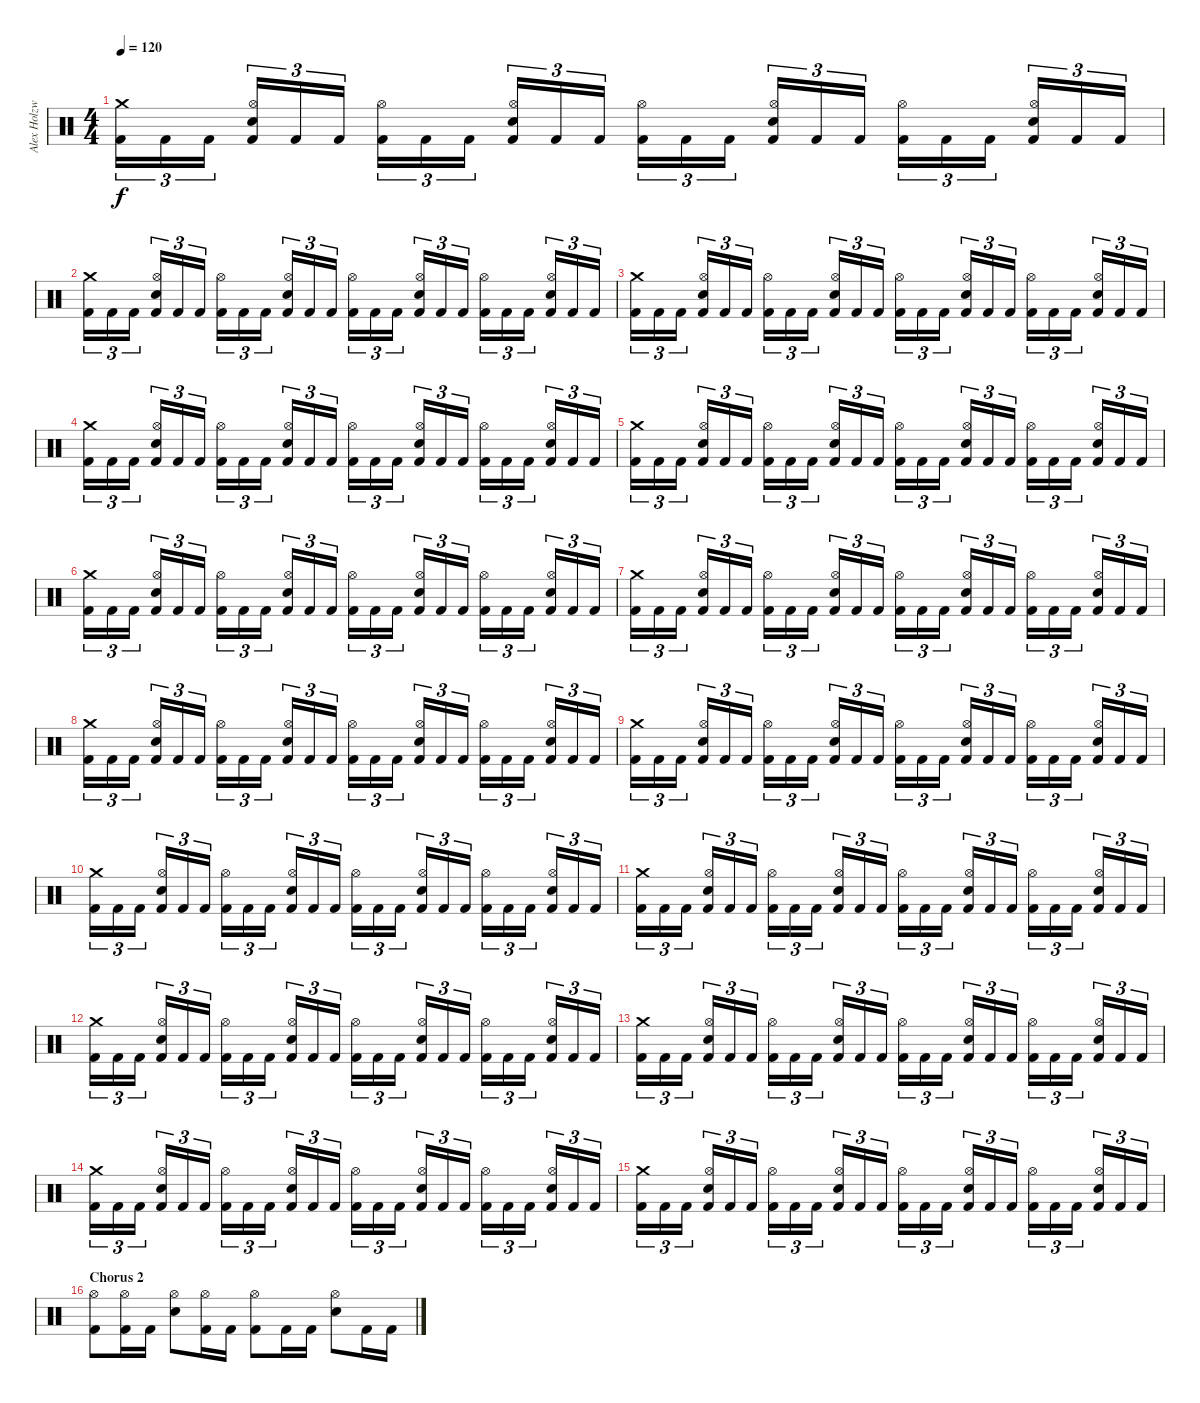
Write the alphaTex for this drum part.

\track ("Alex Holzwarth - Drums" "Alex Holzw") {instrument percussion}
\staff {score}
\articulation defaults
\ts (4 4)
\tempo 120
\clef neutral
\ks c
("Crash medium (hit)" "Kick (hit) 2").16{tu (3 2) dy f} "Kick (hit) 2".16{tu (3 2)} "Kick (hit) 2".16{tu (3 2)} ("Hi-Hat (open)" "Electric Snare (hit)" "Kick (hit) 2").16{tu (3 2)} "Kick (hit) 2".16{tu (3 2)} "Kick (hit) 2".16{tu (3 2)} ("Hi-Hat (open)" "Kick (hit) 2").16{tu (3 2)} "Kick (hit) 2".16{tu (3 2)} "Kick (hit) 2".16{tu (3 2)} ("Hi-Hat (open)" "Electric Snare (hit)" "Kick (hit) 2").16{tu (3 2)} "Kick (hit) 2".16{tu (3 2)} "Kick (hit) 2".16{tu (3 2)} ("Hi-Hat (open)" "Kick (hit) 2").16{tu (3 2)} "Kick (hit) 2".16{tu (3 2)} "Kick (hit) 2".16{tu (3 2)} ("Hi-Hat (open)" "Electric Snare (hit)" "Kick (hit) 2").16{tu (3 2)} "Kick (hit) 2".16{tu (3 2)} "Kick (hit) 2".16{tu (3 2)} ("Hi-Hat (open)" "Kick (hit) 2").16{tu (3 2)} "Kick (hit) 2".16{tu (3 2)} "Kick (hit) 2".16{tu (3 2)} ("Hi-Hat (open)" "Electric Snare (hit)" "Kick (hit) 2").16{tu (3 2)} "Kick (hit) 2".16{tu (3 2)} "Kick (hit) 2".16{tu (3 2)} |
("Crash medium (hit)" "Kick (hit) 2").16{tu (3 2)} "Kick (hit) 2".16{tu (3 2)} "Kick (hit) 2".16{tu (3 2)} ("Hi-Hat (open)" "Electric Snare (hit)" "Kick (hit) 2").16{tu (3 2)} "Kick (hit) 2".16{tu (3 2)} "Kick (hit) 2".16{tu (3 2)} ("Hi-Hat (open)" "Kick (hit) 2").16{tu (3 2)} "Kick (hit) 2".16{tu (3 2)} "Kick (hit) 2".16{tu (3 2)} ("Hi-Hat (open)" "Electric Snare (hit)" "Kick (hit) 2").16{tu (3 2)} "Kick (hit) 2".16{tu (3 2)} "Kick (hit) 2".16{tu (3 2)} ("Hi-Hat (open)" "Kick (hit) 2").16{tu (3 2)} "Kick (hit) 2".16{tu (3 2)} "Kick (hit) 2".16{tu (3 2)} ("Hi-Hat (open)" "Electric Snare (hit)" "Kick (hit) 2").16{tu (3 2)} "Kick (hit) 2".16{tu (3 2)} "Kick (hit) 2".16{tu (3 2)} ("Hi-Hat (open)" "Kick (hit) 2").16{tu (3 2)} "Kick (hit) 2".16{tu (3 2)} "Kick (hit) 2".16{tu (3 2)} ("Hi-Hat (open)" "Electric Snare (hit)" "Kick (hit) 2").16{tu (3 2)} "Kick (hit) 2".16{tu (3 2)} "Kick (hit) 2".16{tu (3 2)} |
("Crash medium (hit)" "Kick (hit) 2").16{tu (3 2)} "Kick (hit) 2".16{tu (3 2)} "Kick (hit) 2".16{tu (3 2)} ("Hi-Hat (open)" "Electric Snare (hit)" "Kick (hit) 2").16{tu (3 2)} "Kick (hit) 2".16{tu (3 2)} "Kick (hit) 2".16{tu (3 2)} ("Hi-Hat (open)" "Kick (hit) 2").16{tu (3 2)} "Kick (hit) 2".16{tu (3 2)} "Kick (hit) 2".16{tu (3 2)} ("Hi-Hat (open)" "Electric Snare (hit)" "Kick (hit) 2").16{tu (3 2)} "Kick (hit) 2".16{tu (3 2)} "Kick (hit) 2".16{tu (3 2)} ("Hi-Hat (open)" "Kick (hit) 2").16{tu (3 2)} "Kick (hit) 2".16{tu (3 2)} "Kick (hit) 2".16{tu (3 2)} ("Hi-Hat (open)" "Electric Snare (hit)" "Kick (hit) 2").16{tu (3 2)} "Kick (hit) 2".16{tu (3 2)} "Kick (hit) 2".16{tu (3 2)} ("Hi-Hat (open)" "Kick (hit) 2").16{tu (3 2)} "Kick (hit) 2".16{tu (3 2)} "Kick (hit) 2".16{tu (3 2)} ("Hi-Hat (open)" "Electric Snare (hit)" "Kick (hit) 2").16{tu (3 2)} "Kick (hit) 2".16{tu (3 2)} "Kick (hit) 2".16{tu (3 2)} |
("Crash medium (hit)" "Kick (hit) 2").16{tu (3 2)} "Kick (hit) 2".16{tu (3 2)} "Kick (hit) 2".16{tu (3 2)} ("Hi-Hat (open)" "Electric Snare (hit)" "Kick (hit) 2").16{tu (3 2)} "Kick (hit) 2".16{tu (3 2)} "Kick (hit) 2".16{tu (3 2)} ("Hi-Hat (open)" "Kick (hit) 2").16{tu (3 2)} "Kick (hit) 2".16{tu (3 2)} "Kick (hit) 2".16{tu (3 2)} ("Hi-Hat (open)" "Electric Snare (hit)" "Kick (hit) 2").16{tu (3 2)} "Kick (hit) 2".16{tu (3 2)} "Kick (hit) 2".16{tu (3 2)} ("Hi-Hat (open)" "Kick (hit) 2").16{tu (3 2)} "Kick (hit) 2".16{tu (3 2)} "Kick (hit) 2".16{tu (3 2)} ("Hi-Hat (open)" "Electric Snare (hit)" "Kick (hit) 2").16{tu (3 2)} "Kick (hit) 2".16{tu (3 2)} "Kick (hit) 2".16{tu (3 2)} ("Hi-Hat (open)" "Kick (hit) 2").16{tu (3 2)} "Kick (hit) 2".16{tu (3 2)} "Kick (hit) 2".16{tu (3 2)} ("Hi-Hat (open)" "Electric Snare (hit)" "Kick (hit) 2").16{tu (3 2)} "Kick (hit) 2".16{tu (3 2)} "Kick (hit) 2".16{tu (3 2)} |
("Crash medium (hit)" "Kick (hit) 2").16{tu (3 2)} "Kick (hit) 2".16{tu (3 2)} "Kick (hit) 2".16{tu (3 2)} ("Hi-Hat (open)" "Electric Snare (hit)" "Kick (hit) 2").16{tu (3 2)} "Kick (hit) 2".16{tu (3 2)} "Kick (hit) 2".16{tu (3 2)} ("Hi-Hat (open)" "Kick (hit) 2").16{tu (3 2)} "Kick (hit) 2".16{tu (3 2)} "Kick (hit) 2".16{tu (3 2)} ("Hi-Hat (open)" "Electric Snare (hit)" "Kick (hit) 2").16{tu (3 2)} "Kick (hit) 2".16{tu (3 2)} "Kick (hit) 2".16{tu (3 2)} ("Hi-Hat (open)" "Kick (hit) 2").16{tu (3 2)} "Kick (hit) 2".16{tu (3 2)} "Kick (hit) 2".16{tu (3 2)} ("Hi-Hat (open)" "Electric Snare (hit)" "Kick (hit) 2").16{tu (3 2)} "Kick (hit) 2".16{tu (3 2)} "Kick (hit) 2".16{tu (3 2)} ("Hi-Hat (open)" "Kick (hit) 2").16{tu (3 2)} "Kick (hit) 2".16{tu (3 2)} "Kick (hit) 2".16{tu (3 2)} ("Hi-Hat (open)" "Electric Snare (hit)" "Kick (hit) 2").16{tu (3 2)} "Kick (hit) 2".16{tu (3 2)} "Kick (hit) 2".16{tu (3 2)} |
("Crash medium (hit)" "Kick (hit) 2").16{tu (3 2)} "Kick (hit) 2".16{tu (3 2)} "Kick (hit) 2".16{tu (3 2)} ("Hi-Hat (open)" "Electric Snare (hit)" "Kick (hit) 2").16{tu (3 2)} "Kick (hit) 2".16{tu (3 2)} "Kick (hit) 2".16{tu (3 2)} ("Hi-Hat (open)" "Kick (hit) 2").16{tu (3 2)} "Kick (hit) 2".16{tu (3 2)} "Kick (hit) 2".16{tu (3 2)} ("Hi-Hat (open)" "Electric Snare (hit)" "Kick (hit) 2").16{tu (3 2)} "Kick (hit) 2".16{tu (3 2)} "Kick (hit) 2".16{tu (3 2)} ("Hi-Hat (open)" "Kick (hit) 2").16{tu (3 2)} "Kick (hit) 2".16{tu (3 2)} "Kick (hit) 2".16{tu (3 2)} ("Hi-Hat (open)" "Electric Snare (hit)" "Kick (hit) 2").16{tu (3 2)} "Kick (hit) 2".16{tu (3 2)} "Kick (hit) 2".16{tu (3 2)} ("Hi-Hat (open)" "Kick (hit) 2").16{tu (3 2)} "Kick (hit) 2".16{tu (3 2)} "Kick (hit) 2".16{tu (3 2)} ("Hi-Hat (open)" "Electric Snare (hit)" "Kick (hit) 2").16{tu (3 2)} "Kick (hit) 2".16{tu (3 2)} "Kick (hit) 2".16{tu (3 2)} |
("Crash medium (hit)" "Kick (hit) 2").16{tu (3 2)} "Kick (hit) 2".16{tu (3 2)} "Kick (hit) 2".16{tu (3 2)} ("Hi-Hat (open)" "Electric Snare (hit)" "Kick (hit) 2").16{tu (3 2)} "Kick (hit) 2".16{tu (3 2)} "Kick (hit) 2".16{tu (3 2)} ("Hi-Hat (open)" "Kick (hit) 2").16{tu (3 2)} "Kick (hit) 2".16{tu (3 2)} "Kick (hit) 2".16{tu (3 2)} ("Hi-Hat (open)" "Electric Snare (hit)" "Kick (hit) 2").16{tu (3 2)} "Kick (hit) 2".16{tu (3 2)} "Kick (hit) 2".16{tu (3 2)} ("Hi-Hat (open)" "Kick (hit) 2").16{tu (3 2)} "Kick (hit) 2".16{tu (3 2)} "Kick (hit) 2".16{tu (3 2)} ("Hi-Hat (open)" "Electric Snare (hit)" "Kick (hit) 2").16{tu (3 2)} "Kick (hit) 2".16{tu (3 2)} "Kick (hit) 2".16{tu (3 2)} ("Hi-Hat (open)" "Kick (hit) 2").16{tu (3 2)} "Kick (hit) 2".16{tu (3 2)} "Kick (hit) 2".16{tu (3 2)} ("Hi-Hat (open)" "Electric Snare (hit)" "Kick (hit) 2").16{tu (3 2)} "Kick (hit) 2".16{tu (3 2)} "Kick (hit) 2".16{tu (3 2)} |
("Crash medium (hit)" "Kick (hit) 2").16{tu (3 2)} "Kick (hit) 2".16{tu (3 2)} "Kick (hit) 2".16{tu (3 2)} ("Hi-Hat (open)" "Electric Snare (hit)" "Kick (hit) 2").16{tu (3 2)} "Kick (hit) 2".16{tu (3 2)} "Kick (hit) 2".16{tu (3 2)} ("Hi-Hat (open)" "Kick (hit) 2").16{tu (3 2)} "Kick (hit) 2".16{tu (3 2)} "Kick (hit) 2".16{tu (3 2)} ("Hi-Hat (open)" "Electric Snare (hit)" "Kick (hit) 2").16{tu (3 2)} "Kick (hit) 2".16{tu (3 2)} "Kick (hit) 2".16{tu (3 2)} ("Hi-Hat (open)" "Kick (hit) 2").16{tu (3 2)} "Kick (hit) 2".16{tu (3 2)} "Kick (hit) 2".16{tu (3 2)} ("Hi-Hat (open)" "Electric Snare (hit)" "Kick (hit) 2").16{tu (3 2)} "Kick (hit) 2".16{tu (3 2)} "Kick (hit) 2".16{tu (3 2)} ("Hi-Hat (open)" "Kick (hit) 2").16{tu (3 2)} "Kick (hit) 2".16{tu (3 2)} "Kick (hit) 2".16{tu (3 2)} ("Hi-Hat (open)" "Electric Snare (hit)" "Kick (hit) 2").16{tu (3 2)} "Kick (hit) 2".16{tu (3 2)} "Kick (hit) 2".16{tu (3 2)} |
("Crash medium (hit)" "Kick (hit) 2").16{tu (3 2)} "Kick (hit) 2".16{tu (3 2)} "Kick (hit) 2".16{tu (3 2)} ("Hi-Hat (open)" "Electric Snare (hit)" "Kick (hit) 2").16{tu (3 2)} "Kick (hit) 2".16{tu (3 2)} "Kick (hit) 2".16{tu (3 2)} ("Hi-Hat (open)" "Kick (hit) 2").16{tu (3 2)} "Kick (hit) 2".16{tu (3 2)} "Kick (hit) 2".16{tu (3 2)} ("Hi-Hat (open)" "Electric Snare (hit)" "Kick (hit) 2").16{tu (3 2)} "Kick (hit) 2".16{tu (3 2)} "Kick (hit) 2".16{tu (3 2)} ("Hi-Hat (open)" "Kick (hit) 2").16{tu (3 2)} "Kick (hit) 2".16{tu (3 2)} "Kick (hit) 2".16{tu (3 2)} ("Hi-Hat (open)" "Electric Snare (hit)" "Kick (hit) 2").16{tu (3 2)} "Kick (hit) 2".16{tu (3 2)} "Kick (hit) 2".16{tu (3 2)} ("Hi-Hat (open)" "Kick (hit) 2").16{tu (3 2)} "Kick (hit) 2".16{tu (3 2)} "Kick (hit) 2".16{tu (3 2)} ("Hi-Hat (open)" "Electric Snare (hit)" "Kick (hit) 2").16{tu (3 2)} "Kick (hit) 2".16{tu (3 2)} "Kick (hit) 2".16{tu (3 2)} |
("Crash medium (hit)" "Kick (hit) 2").16{tu (3 2)} "Kick (hit) 2".16{tu (3 2)} "Kick (hit) 2".16{tu (3 2)} ("Hi-Hat (open)" "Electric Snare (hit)" "Kick (hit) 2").16{tu (3 2)} "Kick (hit) 2".16{tu (3 2)} "Kick (hit) 2".16{tu (3 2)} ("Hi-Hat (open)" "Kick (hit) 2").16{tu (3 2)} "Kick (hit) 2".16{tu (3 2)} "Kick (hit) 2".16{tu (3 2)} ("Hi-Hat (open)" "Electric Snare (hit)" "Kick (hit) 2").16{tu (3 2)} "Kick (hit) 2".16{tu (3 2)} "Kick (hit) 2".16{tu (3 2)} ("Hi-Hat (open)" "Kick (hit) 2").16{tu (3 2)} "Kick (hit) 2".16{tu (3 2)} "Kick (hit) 2".16{tu (3 2)} ("Hi-Hat (open)" "Electric Snare (hit)" "Kick (hit) 2").16{tu (3 2)} "Kick (hit) 2".16{tu (3 2)} "Kick (hit) 2".16{tu (3 2)} ("Hi-Hat (open)" "Kick (hit) 2").16{tu (3 2)} "Kick (hit) 2".16{tu (3 2)} "Kick (hit) 2".16{tu (3 2)} ("Hi-Hat (open)" "Electric Snare (hit)" "Kick (hit) 2").16{tu (3 2)} "Kick (hit) 2".16{tu (3 2)} "Kick (hit) 2".16{tu (3 2)} |
("Crash medium (hit)" "Kick (hit) 2").16{tu (3 2)} "Kick (hit) 2".16{tu (3 2)} "Kick (hit) 2".16{tu (3 2)} ("Hi-Hat (open)" "Electric Snare (hit)" "Kick (hit) 2").16{tu (3 2)} "Kick (hit) 2".16{tu (3 2)} "Kick (hit) 2".16{tu (3 2)} ("Hi-Hat (open)" "Kick (hit) 2").16{tu (3 2)} "Kick (hit) 2".16{tu (3 2)} "Kick (hit) 2".16{tu (3 2)} ("Hi-Hat (open)" "Electric Snare (hit)" "Kick (hit) 2").16{tu (3 2)} "Kick (hit) 2".16{tu (3 2)} "Kick (hit) 2".16{tu (3 2)} ("Hi-Hat (open)" "Kick (hit) 2").16{tu (3 2)} "Kick (hit) 2".16{tu (3 2)} "Kick (hit) 2".16{tu (3 2)} ("Hi-Hat (open)" "Electric Snare (hit)" "Kick (hit) 2").16{tu (3 2)} "Kick (hit) 2".16{tu (3 2)} "Kick (hit) 2".16{tu (3 2)} ("Hi-Hat (open)" "Kick (hit) 2").16{tu (3 2)} "Kick (hit) 2".16{tu (3 2)} "Kick (hit) 2".16{tu (3 2)} ("Hi-Hat (open)" "Electric Snare (hit)" "Kick (hit) 2").16{tu (3 2)} "Kick (hit) 2".16{tu (3 2)} "Kick (hit) 2".16{tu (3 2)} |
("Crash medium (hit)" "Kick (hit) 2").16{tu (3 2)} "Kick (hit) 2".16{tu (3 2)} "Kick (hit) 2".16{tu (3 2)} ("Hi-Hat (open)" "Electric Snare (hit)" "Kick (hit) 2").16{tu (3 2)} "Kick (hit) 2".16{tu (3 2)} "Kick (hit) 2".16{tu (3 2)} ("Hi-Hat (open)" "Kick (hit) 2").16{tu (3 2)} "Kick (hit) 2".16{tu (3 2)} "Kick (hit) 2".16{tu (3 2)} ("Hi-Hat (open)" "Electric Snare (hit)" "Kick (hit) 2").16{tu (3 2)} "Kick (hit) 2".16{tu (3 2)} "Kick (hit) 2".16{tu (3 2)} ("Hi-Hat (open)" "Kick (hit) 2").16{tu (3 2)} "Kick (hit) 2".16{tu (3 2)} "Kick (hit) 2".16{tu (3 2)} ("Hi-Hat (open)" "Electric Snare (hit)" "Kick (hit) 2").16{tu (3 2)} "Kick (hit) 2".16{tu (3 2)} "Kick (hit) 2".16{tu (3 2)} ("Hi-Hat (open)" "Kick (hit) 2").16{tu (3 2)} "Kick (hit) 2".16{tu (3 2)} "Kick (hit) 2".16{tu (3 2)} ("Hi-Hat (open)" "Electric Snare (hit)" "Kick (hit) 2").16{tu (3 2)} "Kick (hit) 2".16{tu (3 2)} "Kick (hit) 2".16{tu (3 2)} |
("Crash medium (hit)" "Kick (hit) 2").16{tu (3 2)} "Kick (hit) 2".16{tu (3 2)} "Kick (hit) 2".16{tu (3 2)} ("Hi-Hat (open)" "Electric Snare (hit)" "Kick (hit) 2").16{tu (3 2)} "Kick (hit) 2".16{tu (3 2)} "Kick (hit) 2".16{tu (3 2)} ("Hi-Hat (open)" "Kick (hit) 2").16{tu (3 2)} "Kick (hit) 2".16{tu (3 2)} "Kick (hit) 2".16{tu (3 2)} ("Hi-Hat (open)" "Electric Snare (hit)" "Kick (hit) 2").16{tu (3 2)} "Kick (hit) 2".16{tu (3 2)} "Kick (hit) 2".16{tu (3 2)} ("Hi-Hat (open)" "Kick (hit) 2").16{tu (3 2)} "Kick (hit) 2".16{tu (3 2)} "Kick (hit) 2".16{tu (3 2)} ("Hi-Hat (open)" "Electric Snare (hit)" "Kick (hit) 2").16{tu (3 2)} "Kick (hit) 2".16{tu (3 2)} "Kick (hit) 2".16{tu (3 2)} ("Hi-Hat (open)" "Kick (hit) 2").16{tu (3 2)} "Kick (hit) 2".16{tu (3 2)} "Kick (hit) 2".16{tu (3 2)} ("Hi-Hat (open)" "Electric Snare (hit)" "Kick (hit) 2").16{tu (3 2)} "Kick (hit) 2".16{tu (3 2)} "Kick (hit) 2".16{tu (3 2)} |
("Crash medium (hit)" "Kick (hit) 2").16{tu (3 2)} "Kick (hit) 2".16{tu (3 2)} "Kick (hit) 2".16{tu (3 2)} ("Hi-Hat (open)" "Electric Snare (hit)" "Kick (hit) 2").16{tu (3 2)} "Kick (hit) 2".16{tu (3 2)} "Kick (hit) 2".16{tu (3 2)} ("Hi-Hat (open)" "Kick (hit) 2").16{tu (3 2)} "Kick (hit) 2".16{tu (3 2)} "Kick (hit) 2".16{tu (3 2)} ("Hi-Hat (open)" "Electric Snare (hit)" "Kick (hit) 2").16{tu (3 2)} "Kick (hit) 2".16{tu (3 2)} "Kick (hit) 2".16{tu (3 2)} ("Hi-Hat (open)" "Kick (hit) 2").16{tu (3 2)} "Kick (hit) 2".16{tu (3 2)} "Kick (hit) 2".16{tu (3 2)} ("Hi-Hat (open)" "Electric Snare (hit)" "Kick (hit) 2").16{tu (3 2)} "Kick (hit) 2".16{tu (3 2)} "Kick (hit) 2".16{tu (3 2)} ("Hi-Hat (open)" "Kick (hit) 2").16{tu (3 2)} "Kick (hit) 2".16{tu (3 2)} "Kick (hit) 2".16{tu (3 2)} ("Hi-Hat (open)" "Electric Snare (hit)" "Kick (hit) 2").16{tu (3 2)} "Kick (hit) 2".16{tu (3 2)} "Kick (hit) 2".16{tu (3 2)} |
("Crash medium (hit)" "Kick (hit) 2").16{tu (3 2)} "Kick (hit) 2".16{tu (3 2)} "Kick (hit) 2".16{tu (3 2)} ("Hi-Hat (open)" "Electric Snare (hit)" "Kick (hit) 2").16{tu (3 2)} "Kick (hit) 2".16{tu (3 2)} "Kick (hit) 2".16{tu (3 2)} ("Hi-Hat (open)" "Kick (hit) 2").16{tu (3 2)} "Kick (hit) 2".16{tu (3 2)} "Kick (hit) 2".16{tu (3 2)} ("Hi-Hat (open)" "Electric Snare (hit)" "Kick (hit) 2").16{tu (3 2)} "Kick (hit) 2".16{tu (3 2)} "Kick (hit) 2".16{tu (3 2)} ("Hi-Hat (open)" "Kick (hit) 2").16{tu (3 2)} "Kick (hit) 2".16{tu (3 2)} "Kick (hit) 2".16{tu (3 2)} ("Hi-Hat (open)" "Electric Snare (hit)" "Kick (hit) 2").16{tu (3 2)} "Kick (hit) 2".16{tu (3 2)} "Kick (hit) 2".16{tu (3 2)} ("Hi-Hat (open)" "Kick (hit) 2").16{tu (3 2)} "Kick (hit) 2".16{tu (3 2)} "Kick (hit) 2".16{tu (3 2)} ("Hi-Hat (open)" "Electric Snare (hit)" "Kick (hit) 2").16{tu (3 2)} "Kick (hit) 2".16{tu (3 2)} "Kick (hit) 2".16{tu (3 2)} |
\section ("" "Chorus 2")
("Hi-Hat (open)" "Kick (hit) 2").8 ("Hi-Hat (open)" "Kick (hit) 2").16 "Kick (hit) 2".16 ("Hi-Hat (open)" "Electric Snare (hit)").8 ("Hi-Hat (open)" "Kick (hit) 2").16 "Kick (hit) 2".16 ("Hi-Hat (open)" "Kick (hit) 2").8 "Kick (hit) 2".16 "Kick (hit) 2".16 ("Hi-Hat (open)" "Electric Snare (hit)").8 "Kick (hit) 2".16 "Kick (hit) 2".16
